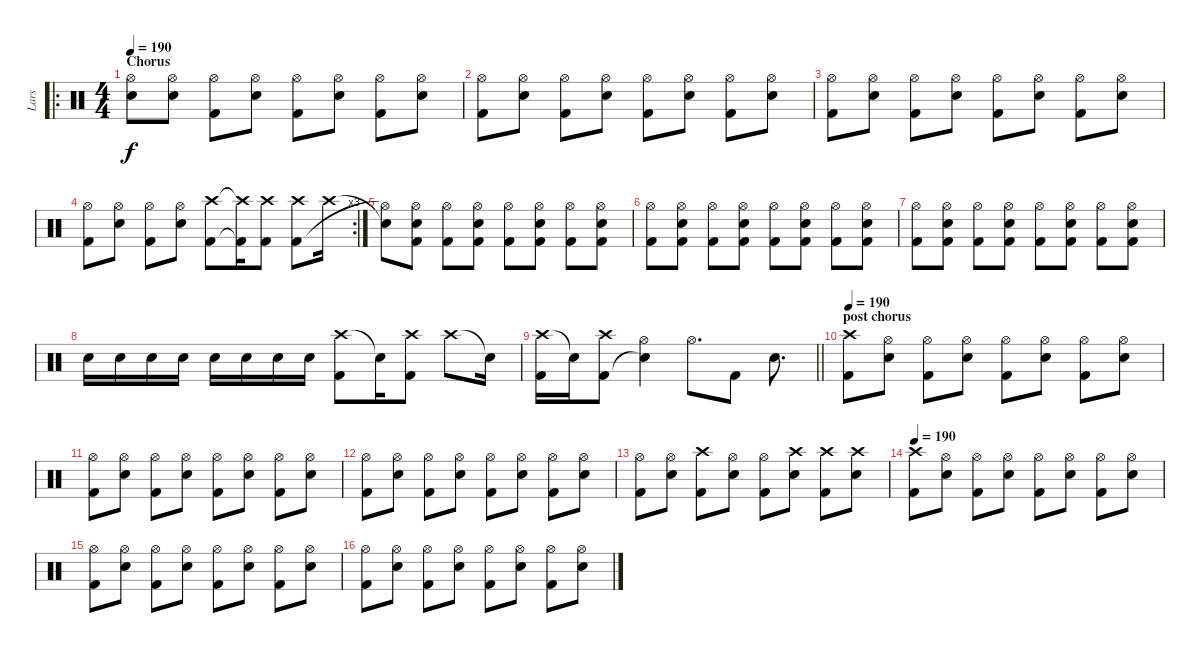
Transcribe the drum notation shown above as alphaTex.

\track ("Lars" "Lars") {instrument percussion}
\staff {score}
\articulation defaults
\ro
\ts (4 4)
\section ("" "Chorus")
\tempo 190
\clef neutral
\ks c
("Snare (hit)"{t} "Hi-Hat (open)"{t}).8{dy f} ("Hi-Hat (open)" "Snare (hit) 2").8 ("Hi-Hat (open)" "Kick (hit) 2").8 ("Hi-Hat (open)" "Snare (hit) 2").8 ("Hi-Hat (open)" "Kick (hit) 2").8 ("Hi-Hat (open)" "Snare (hit) 2").8 ("Hi-Hat (open)" "Kick (hit) 2").8 ("Hi-Hat (open)" "Snare (hit) 2").8 |
("Hi-Hat (open)" "Kick (hit) 2").8 ("Hi-Hat (open)" "Snare (hit) 2").8 ("Hi-Hat (open)" "Kick (hit) 2").8 ("Hi-Hat (open)" "Snare (hit) 2").8 ("Hi-Hat (open)" "Kick (hit) 2").8 ("Hi-Hat (open)" "Snare (hit) 2").8 ("Hi-Hat (open)" "Kick (hit) 2").8 ("Hi-Hat (open)" "Snare (hit) 2").8 |
("Hi-Hat (open)" "Kick (hit) 2").8 ("Hi-Hat (open)" "Snare (hit) 2").8 ("Hi-Hat (open)" "Kick (hit) 2").8 ("Hi-Hat (open)" "Snare (hit) 2").8 ("Hi-Hat (open)" "Kick (hit) 2").8 ("Hi-Hat (open)" "Snare (hit) 2").8 ("Hi-Hat (open)" "Kick (hit) 2").8 ("Hi-Hat (open)" "Snare (hit) 2").8 |
\rc 3
("Hi-Hat (open)" "Kick (hit) 2").8 ("Hi-Hat (open)" "Snare (hit) 2").8 ("Hi-Hat (open)" "Kick (hit) 2").8 ("Hi-Hat (open)" "Snare (hit) 2").8 ("Crash high (hit)" "Kick (hit) 2").8 ("Crash high (hit)"{t} "Kick (hit) 2"{t}).16 ("Crash high (hit)" "Kick (hit) 2").8 ("Crash high (hit)" "Kick (hit) 2").8 "Crash high (hit)".16 |
("Snare (hit)"{t} "Hi-Hat (open)"{t}).8 ("Hi-Hat (open)" "Snare (hit) 2" "Kick (hit) 2").8 ("Hi-Hat (open)" "Kick (hit) 2").8 ("Hi-Hat (open)" "Snare (hit) 2" "Kick (hit) 2").8 ("Hi-Hat (open)" "Kick (hit) 2").8 ("Hi-Hat (open)" "Snare (hit) 2" "Kick (hit) 2").8 ("Hi-Hat (open)" "Kick (hit) 2").8 ("Hi-Hat (open)" "Snare (hit) 2" "Kick (hit) 2").8 |
("Hi-Hat (open)" "Kick (hit) 2").8 ("Hi-Hat (open)" "Snare (hit) 2" "Kick (hit) 2").8 ("Hi-Hat (open)" "Kick (hit) 2").8 ("Hi-Hat (open)" "Snare (hit) 2" "Kick (hit) 2").8 ("Hi-Hat (open)" "Kick (hit) 2").8 ("Hi-Hat (open)" "Snare (hit) 2" "Kick (hit) 2").8 ("Hi-Hat (open)" "Kick (hit) 2").8 ("Hi-Hat (open)" "Snare (hit) 2" "Kick (hit) 2").8 |
("Hi-Hat (open)" "Kick (hit) 2").8 ("Hi-Hat (open)" "Snare (hit) 2" "Kick (hit) 2").8 ("Hi-Hat (open)" "Kick (hit) 2").8 ("Hi-Hat (open)" "Snare (hit) 2" "Kick (hit) 2").8 ("Hi-Hat (open)" "Kick (hit) 2").8 ("Hi-Hat (open)" "Snare (hit) 2" "Kick (hit) 2").8 ("Hi-Hat (open)" "Kick (hit) 2").8 ("Hi-Hat (open)" "Snare (hit) 2" "Kick (hit) 2").8 |
"Snare (hit) 2".16 "Snare (hit) 2".16 "Snare (hit) 2".16 "Snare (hit) 2".16 "Snare (hit) 2".16 "Snare (hit) 2".16 "Snare (hit) 2".16 "Snare (hit) 2".16 ("Crash high (hit)" "Kick (hit) 2").8 "Snare (hit)"{t}.16 ("Crash high (hit)" "Kick (hit) 2").8 "Crash high (hit)".8 "Snare (hit)"{t}.16 |
\barLineRight lightlight
("Crash high (hit)" "Kick (hit) 2").16 "Snare (hit)"{t}.16 ("Crash high (hit)" "Kick (hit) 2").8 ("Hi-Hat (open)" "Snare (hit)"{t}).4 "Hi-Hat (open)".8{d} "Kick (hit) 2".8 "Snare (hit) 2".8{d} |
\section ("" "post chorus")
\tempo 190
("Crash high (hit)" "Kick (hit) 2").8 ("Hi-Hat (open)" "Snare (hit) 2").8 ("Hi-Hat (open)" "Kick (hit) 2").8 ("Hi-Hat (open)" "Snare (hit) 2").8 ("Hi-Hat (open)" "Kick (hit) 2").8 ("Hi-Hat (open)" "Snare (hit) 2").8 ("Hi-Hat (open)" "Kick (hit) 2").8 ("Hi-Hat (open)" "Snare (hit) 2").8 |
("Hi-Hat (open)" "Kick (hit) 2").8 ("Hi-Hat (open)" "Snare (hit) 2").8 ("Hi-Hat (open)" "Kick (hit) 2").8 ("Hi-Hat (open)" "Snare (hit) 2").8 ("Hi-Hat (open)" "Kick (hit) 2").8 ("Hi-Hat (open)" "Snare (hit) 2").8 ("Hi-Hat (open)" "Kick (hit) 2").8 ("Hi-Hat (open)" "Snare (hit) 2").8 |
("Hi-Hat (open)" "Kick (hit) 2").8 ("Hi-Hat (open)" "Snare (hit) 2").8 ("Hi-Hat (open)" "Kick (hit) 2").8 ("Hi-Hat (open)" "Snare (hit) 2").8 ("Hi-Hat (open)" "Kick (hit) 2").8 ("Hi-Hat (open)" "Snare (hit) 2").8 ("Hi-Hat (open)" "Kick (hit) 2").8 ("Hi-Hat (open)" "Snare (hit) 2").8 |
("Hi-Hat (open)" "Kick (hit) 2").8 ("Hi-Hat (open)" "Snare (hit) 2").8 ("Crash high (hit)" "Kick (hit) 2").8 ("Hi-Hat (open)" "Snare (hit) 2").8 ("Hi-Hat (open)" "Kick (hit) 2").8 ("Crash high (hit)" "Snare (hit) 2").8 ("Crash high (hit)" "Kick (hit) 2").8 ("Crash high (hit)" "Snare (hit) 2").8 |
\tempo 190
("Crash high (hit)" "Kick (hit) 2").8 ("Hi-Hat (open)" "Snare (hit) 2").8 ("Hi-Hat (open)" "Kick (hit) 2").8 ("Hi-Hat (open)" "Snare (hit) 2").8 ("Hi-Hat (open)" "Kick (hit) 2").8 ("Hi-Hat (open)" "Snare (hit) 2").8 ("Hi-Hat (open)" "Kick (hit) 2").8 ("Hi-Hat (open)" "Snare (hit) 2").8 |
("Hi-Hat (open)" "Kick (hit) 2").8 ("Hi-Hat (open)" "Snare (hit) 2").8 ("Hi-Hat (open)" "Kick (hit) 2").8 ("Hi-Hat (open)" "Snare (hit) 2").8 ("Hi-Hat (open)" "Kick (hit) 2").8 ("Hi-Hat (open)" "Snare (hit) 2").8 ("Hi-Hat (open)" "Kick (hit) 2").8 ("Hi-Hat (open)" "Snare (hit) 2").8 |
("Hi-Hat (open)" "Kick (hit) 2").8 ("Hi-Hat (open)" "Snare (hit) 2").8 ("Hi-Hat (open)" "Kick (hit) 2").8 ("Hi-Hat (open)" "Snare (hit) 2").8 ("Hi-Hat (open)" "Kick (hit) 2").8 ("Hi-Hat (open)" "Snare (hit) 2").8 ("Hi-Hat (open)" "Kick (hit) 2").8 ("Hi-Hat (open)" "Snare (hit) 2").8
